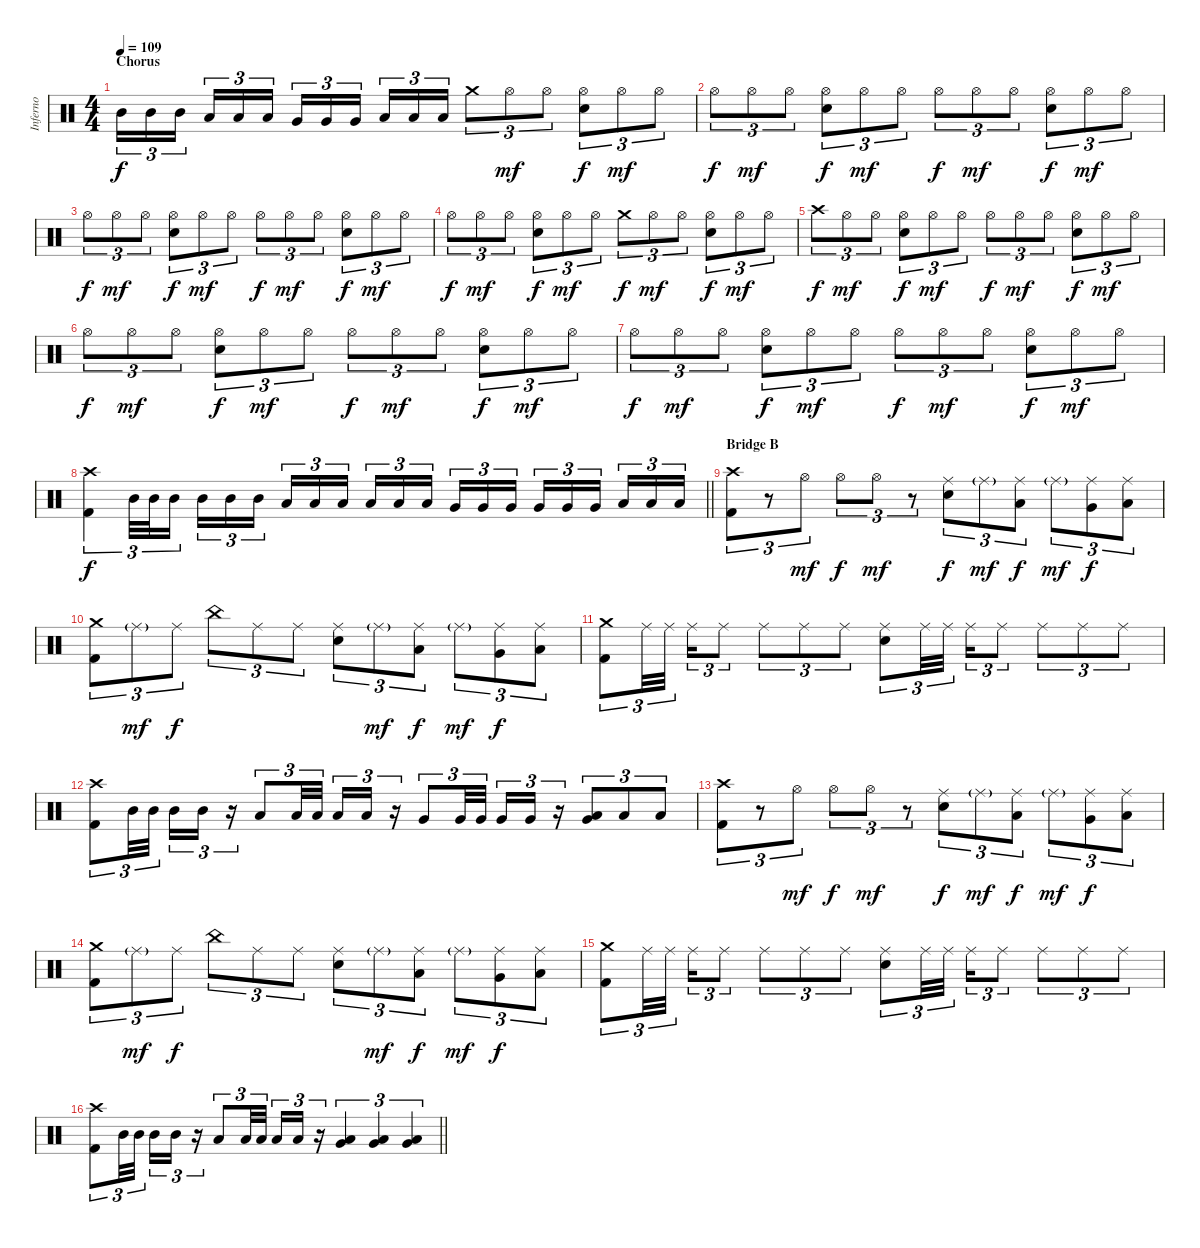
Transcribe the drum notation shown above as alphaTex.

\track ("Inferno" "Inferno") {instrument percussion}
\staff {score}
\articulation defaults
\ts (4 4)
\section ("" "Chorus")
\tempo 109
\clef neutral
\ks c "Mid Tom (hit)".16{tu (3 2) dy f} "Mid Tom (hit)".16{tu (3 2)} "Mid Tom (hit)".16{tu (3 2) beam splitsecondary} "Low Tom (hit)".16{tu (3 2)} "Low Tom (hit)".16{tu (3 2)} "Low Tom (hit)".16{tu (3 2)} "Very Low Tom (hit)".16{tu (3 2)} "Very Low Tom (hit)".16{tu (3 2)} "Very Low Tom (hit)".16{tu (3 2) beam splitsecondary} "Low Floor Tom (hit)".16{tu (3 2)} "Low Floor Tom (hit)".16{tu (3 2)} "Low Floor Tom (hit)".16{tu (3 2)} "Crash medium (hit)".8{tu (3 2)} "Hi-Hat (open)".8{tu (3 2) dy mf} "Hi-Hat (open)".8{tu (3 2)}
("Hi-Hat (open)" "Snare (hit) 2").8{tu (3 2) dy f} "Hi-Hat (open)".8{tu (3 2) dy mf} "Hi-Hat (open)".8{tu (3 2)} |
"Hi-Hat (open)".8{tu (3 2) dy f} "Hi-Hat (open)".8{tu (3 2) dy mf} "Hi-Hat (open)".8{tu (3 2)} ("Hi-Hat (open)" "Snare (hit) 2").8{tu (3 2) dy f} "Hi-Hat (open)".8{tu (3 2) dy mf} "Hi-Hat (open)".8{tu (3 2)} "Hi-Hat (open)".8{tu (3 2) dy f} "Hi-Hat (open)".8{tu (3 2) dy mf} "Hi-Hat (open)".8{tu (3 2)} ("Hi-Hat (open)" "Snare (hit) 2").8{tu (3 2) dy f} "Hi-Hat (open)".8{tu (3 2) dy mf} "Hi-Hat (open)".8{tu (3 2)} |
"Hi-Hat (open)".8{tu (3 2) dy f} "Hi-Hat (open)".8{tu (3 2) dy mf} "Hi-Hat (open)".8{tu (3 2)} ("Hi-Hat (open)" "Snare (hit) 2").8{tu (3 2) dy f} "Hi-Hat (open)".8{tu (3 2) dy mf} "Hi-Hat (open)".8{tu (3 2)} "Hi-Hat (open)".8{tu (3 2) dy f} "Hi-Hat (open)".8{tu (3 2) dy mf} "Hi-Hat (open)".8{tu (3 2)} ("Hi-Hat (open)" "Snare (hit) 2").8{tu (3 2) dy f} "Hi-Hat (open)".8{tu (3 2) dy mf} "Hi-Hat (open)".8{tu (3 2)} |
"Hi-Hat (open)".8{tu (3 2) dy f} "Hi-Hat (open)".8{tu (3 2) dy mf} "Hi-Hat (open)".8{tu (3 2)} ("Hi-Hat (open)" "Snare (hit) 2").8{tu (3 2) dy f} "Hi-Hat (open)".8{tu (3 2) dy mf} "Hi-Hat (open)".8{tu (3 2)} "Crash medium (hit)".8{tu (3 2) dy f} "Hi-Hat (open)".8{tu (3 2) dy mf} "Hi-Hat (open)".8{tu (3 2)} ("Hi-Hat (open)" "Snare (hit) 2").8{tu (3 2) dy f} "Hi-Hat (open)".8{tu (3 2) dy mf} "Hi-Hat (open)".8{tu (3 2)} |
"Crash high (hit)".8{tu (3 2) dy f} "Hi-Hat (open)".8{tu (3 2) dy mf} "Hi-Hat (open)".8{tu (3 2)} ("Hi-Hat (open)" "Snare (hit) 2").8{tu (3 2) dy f} "Hi-Hat (open)".8{tu (3 2) dy mf} "Hi-Hat (open)".8{tu (3 2)} "Hi-Hat (open)".8{tu (3 2) dy f} "Hi-Hat (open)".8{tu (3 2) dy mf} "Hi-Hat (open)".8{tu (3 2)} ("Hi-Hat (open)" "Snare (hit) 2").8{tu (3 2) dy f} "Hi-Hat (open)".8{tu (3 2) dy mf} "Hi-Hat (open)".8{tu (3 2)} |
"Hi-Hat (open)".8{tu (3 2) dy f} "Hi-Hat (open)".8{tu (3 2) dy mf} "Hi-Hat (open)".8{tu (3 2)} ("Hi-Hat (open)" "Snare (hit) 2").8{tu (3 2) dy f} "Hi-Hat (open)".8{tu (3 2) dy mf} "Hi-Hat (open)".8{tu (3 2)} "Hi-Hat (open)".8{tu (3 2) dy f} "Hi-Hat (open)".8{tu (3 2) dy mf} "Hi-Hat (open)".8{tu (3 2)} ("Hi-Hat (open)" "Snare (hit) 2").8{tu (3 2) dy f} "Hi-Hat (open)".8{tu (3 2) dy mf} "Hi-Hat (open)".8{tu (3 2)} |
"Hi-Hat (open)".8{tu (3 2) dy f} "Hi-Hat (open)".8{tu (3 2) dy mf} "Hi-Hat (open)".8{tu (3 2)} ("Hi-Hat (open)" "Snare (hit) 2").8{tu (3 2) dy f} "Hi-Hat (open)".8{tu (3 2) dy mf} "Hi-Hat (open)".8{tu (3 2)} "Hi-Hat (open)".8{tu (3 2) dy f} "Hi-Hat (open)".8{tu (3 2) dy mf} "Hi-Hat (open)".8{tu (3 2)} ("Hi-Hat (open)" "Snare (hit) 2").8{tu (3 2) dy f} "Hi-Hat (open)".8{tu (3 2) dy mf} "Hi-Hat (open)".8{tu (3 2)} |
\barLineRight lightlight
("Crash high (hit)" "Kick (hit) 2").4{tu (3 2) dy f} "Mid Tom (hit)".32{tu (3 2)} "Mid Tom (hit)".32{tu (3 2)} "Mid Tom (hit)".16{tu (3 2)} "Mid Tom (hit)".16{tu (3 2)} "Mid Tom (hit)".16{tu (3 2)} "Mid Tom (hit)".16{tu (3 2) beam splitsecondary} "Low Tom (hit)".16{tu (3 2)} "Low Tom (hit)".16{tu (3 2)} "Low Tom (hit)".16{tu (3 2)} "Low Tom (hit)".16{tu (3 2)} "Low Tom (hit)".16{tu (3 2)} "Low Tom (hit)".16{tu (3 2) beam splitsecondary} "Very Low Tom (hit)".16{tu (3 2)} "Very Low Tom (hit)".16{tu (3 2)} "Very Low Tom (hit)".16{tu (3 2)} "Very Low Tom (hit)".16{tu (3 2)} "Very Low Tom (hit)".16{tu (3 2)} "Very Low Tom (hit)".16{tu (3 2) beam splitsecondary} "Low Floor Tom (hit)".16{tu (3 2)} "Low Floor Tom (hit)".16{tu (3 2)} "Low Floor Tom (hit)".16{tu (3 2)} |
\section ("" "Bridge B")
("Crash high (hit)" "Kick (hit) 2").8{tu (3 2)} r.8{tu (3 2)} "Hi-Hat (open)".8{tu (3 2) dy mf} "Hi-Hat (open)".8{tu (3 2) dy f} "Hi-Hat (open)".8{tu (3 2) dy mf} r.8{tu (3 2)} ("Ride (middle)" "Snare (hit) 2").8{tu (3 2) dy f} "Ride (middle)"{g}.8{tu (3 2) dy mf} ("Ride (middle)" "Low Tom (hit)").8{tu (3 2) dy f} "Ride (middle)"{g}.8{tu (3 2) dy mf} ("Ride (middle)" "Very Low Tom (hit)").8{tu (3 2) dy f} ("Ride (middle)" "Low Floor Tom (hit)").8{tu (3 2)} |
("Crash medium (hit)" "Kick (hit) 2").8{tu (3 2)} "Ride (middle)"{g}.8{tu (3 2) dy mf} "Ride (middle)".8{tu (3 2) dy f} "China (hit)".8{tu (3 2)} "Ride (middle)".8{tu (3 2)} "Ride (middle)".8{tu (3 2)} ("Ride (middle)" "Snare (hit) 2").8{tu (3 2)} "Ride (middle)"{g}.8{tu (3 2) dy mf} ("Ride (middle)" "Low Tom (hit)").8{tu (3 2) dy f} "Ride (middle)"{g}.8{tu (3 2) dy mf} ("Ride (middle)" "Very Low Tom (hit)").8{tu (3 2) dy f} ("Ride (middle)" "Low Floor Tom (hit)").8{tu (3 2)} |
("Crash medium (hit)" "Kick (hit) 2").8{tu (3 2)} "Ride (middle)".32{tu (3 2)} "Ride (middle)".32{tu (3 2) beam splitsecondary} "Ride (middle)".16{tu (3 2)} "Ride (middle)".8{tu (3 2)} "Ride (middle)".8{tu (3 2)} "Ride (middle)".8{tu (3 2)} "Ride (middle)".8{tu (3 2)} ("Ride (middle)" "Snare (hit) 2").8{tu (3 2)} "Ride (middle)".32{tu (3 2)} "Ride (middle)".32{tu (3 2) beam splitsecondary} "Ride (middle)".16{tu (3 2)} "Ride (middle)".8{tu (3 2)} "Ride (middle)".8{tu (3 2)} "Ride (middle)".8{tu (3 2)} "Ride (middle)".8{tu (3 2)} |
("Crash high (hit)" "Kick (hit) 2").8{tu (3 2)} "Mid Tom (hit)".32{tu (3 2)} "Mid Tom (hit)".32{tu (3 2) beam splitsecondary} "Mid Tom (hit)".16{tu (3 2)} "Mid Tom (hit)".16{tu (3 2)} r.16{tu (3 2)} "Low Tom (hit)".8{tu (3 2)} "Low Tom (hit)".32{tu (3 2)} "Low Tom (hit)".32{tu (3 2) beam splitsecondary} "Low Tom (hit)".16{tu (3 2)} "Low Tom (hit)".16{tu (3 2)} r.16{tu (3 2)} "Very Low Tom (hit)".8{tu (3 2)} "Very Low Tom (hit)".32{tu (3 2)} "Very Low Tom (hit)".32{tu (3 2) beam splitsecondary} "Very Low Tom (hit)".16{tu (3 2)} "Very Low Tom (hit)".16{tu (3 2)} r.16{tu (3 2)} ("Very Low Tom (hit)" "Low Floor Tom (hit)").8{tu (3 2)} "Low Floor Tom (hit)".8{tu (3 2)} "Low Floor Tom (hit)".8{tu (3 2)} |
("Crash high (hit)" "Kick (hit) 2").8{tu (3 2)} r.8{tu (3 2)} "Hi-Hat (open)".8{tu (3 2) dy mf} "Hi-Hat (open)".8{tu (3 2) dy f} "Hi-Hat (open)".8{tu (3 2) dy mf} r.8{tu (3 2)} ("Ride (middle)" "Snare (hit) 2").8{tu (3 2) dy f} "Ride (middle)"{g}.8{tu (3 2) dy mf} ("Ride (middle)" "Low Tom (hit)").8{tu (3 2) dy f} "Ride (middle)"{g}.8{tu (3 2) dy mf} ("Ride (middle)" "Very Low Tom (hit)").8{tu (3 2) dy f} ("Ride (middle)" "Low Floor Tom (hit)").8{tu (3 2)} |
("Crash medium (hit)" "Kick (hit) 2").8{tu (3 2)} "Ride (middle)"{g}.8{tu (3 2) dy mf} "Ride (middle)".8{tu (3 2) dy f} "China (hit)".8{tu (3 2)} "Ride (middle)".8{tu (3 2)} "Ride (middle)".8{tu (3 2)} ("Ride (middle)" "Snare (hit) 2").8{tu (3 2)} "Ride (middle)"{g}.8{tu (3 2) dy mf} ("Ride (middle)" "Low Tom (hit)").8{tu (3 2) dy f} "Ride (middle)"{g}.8{tu (3 2) dy mf} ("Ride (middle)" "Very Low Tom (hit)").8{tu (3 2) dy f} ("Ride (middle)" "Low Floor Tom (hit)").8{tu (3 2)} |
("Crash medium (hit)" "Kick (hit) 2").8{tu (3 2)} "Ride (middle)".32{tu (3 2)} "Ride (middle)".32{tu (3 2) beam splitsecondary} "Ride (middle)".16{tu (3 2)} "Ride (middle)".8{tu (3 2)} "Ride (middle)".8{tu (3 2)} "Ride (middle)".8{tu (3 2)} "Ride (middle)".8{tu (3 2)} ("Ride (middle)" "Snare (hit) 2").8{tu (3 2)} "Ride (middle)".32{tu (3 2)} "Ride (middle)".32{tu (3 2) beam splitsecondary} "Ride (middle)".16{tu (3 2)} "Ride (middle)".8{tu (3 2)} "Ride (middle)".8{tu (3 2)} "Ride (middle)".8{tu (3 2)} "Ride (middle)".8{tu (3 2)} |
\barLineRight lightlight
("Crash high (hit)" "Kick (hit) 2").8{tu (3 2)} "Mid Tom (hit)".32{tu (3 2)} "Mid Tom (hit)".32{tu (3 2) beam splitsecondary} "Mid Tom (hit)".16{tu (3 2)} "Mid Tom (hit)".16{tu (3 2)} r.16{tu (3 2)} "Low Tom (hit)".8{tu (3 2)} "Low Tom (hit)".32{tu (3 2)} "Low Tom (hit)".32{tu (3 2) beam splitsecondary} "Low Tom (hit)".16{tu (3 2)} "Low Tom (hit)".16{tu (3 2)} r.16{tu (3 2)} ("Very Low Tom (hit)" "Low Floor Tom (hit)").4{tu (3 2)} ("Very Low Tom (hit)" "Low Floor Tom (hit)").4{tu (3 2)} ("Very Low Tom (hit)" "Low Floor Tom (hit)").4{tu (3 2)}
